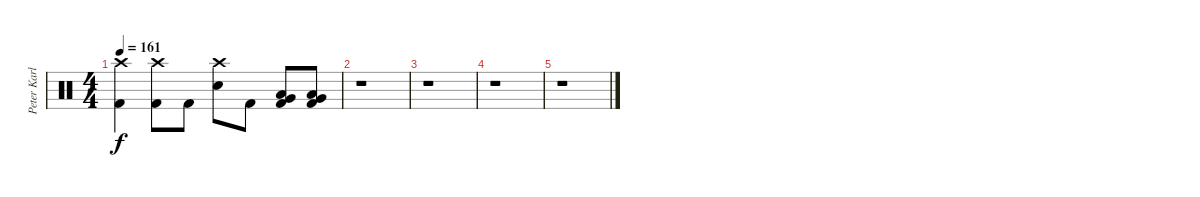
\track ("Peter Karlsson" "Peter Karl") {instrument percussion}
\staff {score}
\articulation defaults
\ts (4 4)
\tempo 161
\clef neutral
\ks c
("Crash high (hit)" "Kick (hit) 2").4{dy f} ("Crash high (hit)" "Kick (hit) 2").8 "Kick (hit) 2".8 ("Crash high (hit)" "Snare (hit) 2").8 "Kick (hit) 2".8 ("Low Tom (hit)" "Very Low Tom (hit)" "Kick (hit) 2").8 ("Low Tom (hit)" "Very Low Tom (hit)" "Kick (hit) 2").8 |
r.1 |
r.1 |
r.1 |
r.1
